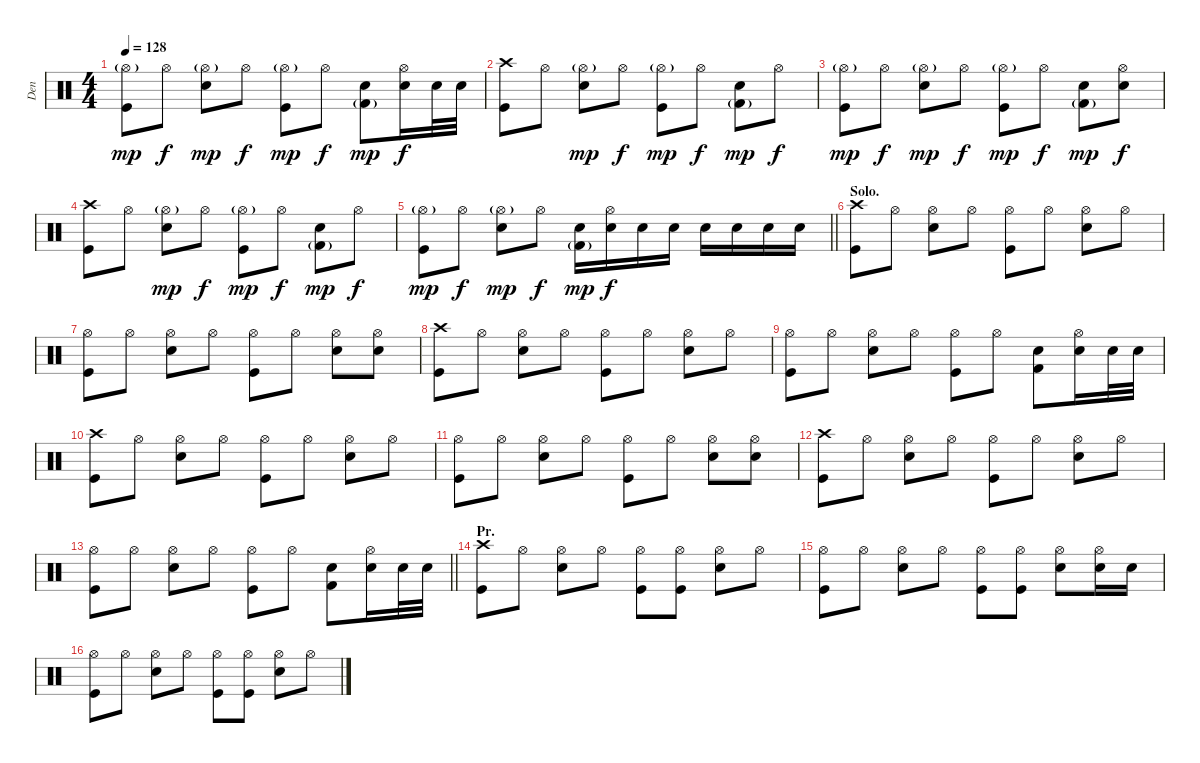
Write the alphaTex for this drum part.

\track ("Den" "Den") {instrument percussion}
\staff
\articulation defaults
\ts (4 4)
\tempo 128
\clef neutral
\ks c
("Hi-Hat (open)"{g} "Kick (hit)").8{dy mp} "Hi-Hat (open)".8{dy f} ("Hi-Hat (open)"{g} "Snare (hit) 2").8{dy mp} "Hi-Hat (open)".8{dy f} ("Hi-Hat (open)"{g} "Kick (hit)").8{dy mp} "Hi-Hat (open)".8{dy f} ("Kick (hit) 2"{g} "Snare (hit) 2").8{dy mp} ("Hi-Hat (open)" "Snare (hit) 2").16{dy f} "Snare (hit) 2".32 "Snare (hit) 2".32 |
("Crash high (hit)" "Kick (hit)").8 "Hi-Hat (open)".8 ("Hi-Hat (open)"{g} "Snare (hit) 2").8{dy mp} "Hi-Hat (open)".8{dy f} ("Hi-Hat (open)"{g} "Kick (hit)").8{dy mp} "Hi-Hat (open)".8{dy f} ("Kick (hit) 2"{g} "Snare (hit) 2").8{dy mp} "Hi-Hat (open)".8{dy f} |
("Hi-Hat (open)"{g} "Kick (hit)").8{dy mp} "Hi-Hat (open)".8{dy f} ("Hi-Hat (open)"{g} "Snare (hit) 2").8{dy mp} "Hi-Hat (open)".8{dy f} ("Hi-Hat (open)"{g} "Kick (hit)").8{dy mp} "Hi-Hat (open)".8{dy f} ("Kick (hit) 2"{g} "Snare (hit) 2").8{dy mp} ("Hi-Hat (open)" "Snare (hit) 2").8{dy f} |
("Crash high (hit)" "Kick (hit)").8 "Hi-Hat (open)".8 ("Hi-Hat (open)"{g} "Snare (hit) 2").8{dy mp} "Hi-Hat (open)".8{dy f} ("Hi-Hat (open)"{g} "Kick (hit)").8{dy mp} "Hi-Hat (open)".8{dy f} ("Kick (hit) 2"{g} "Snare (hit) 2").8{dy mp} "Hi-Hat (open)".8{dy f} |
\barLineRight lightlight
("Hi-Hat (open)"{g} "Kick (hit)").8{dy mp} "Hi-Hat (open)".8{dy f} ("Hi-Hat (open)"{g} "Snare (hit) 2").8{dy mp} "Hi-Hat (open)".8{dy f} ("Kick (hit) 2"{g} "Snare (hit) 2").16{dy mp} ("Hi-Hat (open)" "Snare (hit) 2").16{dy f} "Snare (hit) 2".16 "Snare (hit) 2".16 "Snare (hit) 2".16 "Snare (hit) 2".16 "Snare (hit) 2".16 "Snare (hit) 2".16 |
\section ("" "Solo.")
("Crash high (hit)" "Kick (hit)").8 "Hi-Hat (open)".8 ("Hi-Hat (open)" "Snare (hit) 2").8 "Hi-Hat (open)".8 ("Hi-Hat (open)" "Kick (hit)").8 "Hi-Hat (open)".8 ("Hi-Hat (open)" "Snare (hit) 2").8 "Hi-Hat (open)".8 |
("Hi-Hat (open)" "Kick (hit)").8 "Hi-Hat (open)".8 ("Hi-Hat (open)" "Snare (hit) 2").8 "Hi-Hat (open)".8 ("Hi-Hat (open)" "Kick (hit)").8 "Hi-Hat (open)".8 ("Hi-Hat (open)" "Snare (hit) 2").8 ("Hi-Hat (open)" "Snare (hit) 2").8 |
("Crash high (hit)" "Kick (hit)").8 "Hi-Hat (open)".8 ("Hi-Hat (open)" "Snare (hit) 2").8 "Hi-Hat (open)".8 ("Hi-Hat (open)" "Kick (hit)").8 "Hi-Hat (open)".8 ("Hi-Hat (open)" "Snare (hit) 2").8 "Hi-Hat (open)".8 |
("Hi-Hat (open)" "Kick (hit)").8 "Hi-Hat (open)".8 ("Hi-Hat (open)" "Snare (hit) 2").8 "Hi-Hat (open)".8 ("Hi-Hat (open)" "Kick (hit)").8 "Hi-Hat (open)".8 ("Kick (hit) 2" "Snare (hit) 2").8 ("Hi-Hat (open)" "Snare (hit) 2").16 "Snare (hit) 2".32 "Snare (hit) 2".32 |
("Crash high (hit)" "Kick (hit)").8 "Hi-Hat (open)".8 ("Hi-Hat (open)" "Snare (hit) 2").8 "Hi-Hat (open)".8 ("Hi-Hat (open)" "Kick (hit)").8 "Hi-Hat (open)".8 ("Hi-Hat (open)" "Snare (hit) 2").8 "Hi-Hat (open)".8 |
("Hi-Hat (open)" "Kick (hit)").8 "Hi-Hat (open)".8 ("Hi-Hat (open)" "Snare (hit) 2").8 "Hi-Hat (open)".8 ("Hi-Hat (open)" "Kick (hit)").8 "Hi-Hat (open)".8 ("Hi-Hat (open)" "Snare (hit) 2").8 ("Hi-Hat (open)" "Snare (hit) 2").8 |
("Crash high (hit)" "Kick (hit)").8 "Hi-Hat (open)".8 ("Hi-Hat (open)" "Snare (hit) 2").8 "Hi-Hat (open)".8 ("Hi-Hat (open)" "Kick (hit)").8 "Hi-Hat (open)".8 ("Hi-Hat (open)" "Snare (hit) 2").8 "Hi-Hat (open)".8 |
\barLineRight lightlight
("Hi-Hat (open)" "Kick (hit)").8 "Hi-Hat (open)".8 ("Hi-Hat (open)" "Snare (hit) 2").8 "Hi-Hat (open)".8 ("Hi-Hat (open)" "Kick (hit)").8 "Hi-Hat (open)".8 ("Kick (hit) 2" "Snare (hit) 2").8 ("Hi-Hat (open)" "Snare (hit) 2").16 "Snare (hit) 2".32 "Snare (hit) 2".32 |
\section ("" "Pr.")
("Crash high (hit)" "Kick (hit)").8 "Hi-Hat (open)".8 ("Hi-Hat (open)" "Snare (hit) 2").8 "Hi-Hat (open)".8 ("Hi-Hat (open)" "Kick (hit)").8 ("Hi-Hat (open)" "Kick (hit)").8 ("Hi-Hat (open)" "Snare (hit) 2").8 "Hi-Hat (open)".8 |
("Hi-Hat (open)" "Kick (hit)").8 "Hi-Hat (open)".8 ("Hi-Hat (open)" "Snare (hit) 2").8 "Hi-Hat (open)".8 ("Hi-Hat (open)" "Kick (hit)").8 ("Hi-Hat (open)" "Kick (hit)").8 ("Hi-Hat (open)" "Snare (hit) 2").8 ("Hi-Hat (open)" "Snare (hit) 2").16 "Snare (hit) 2".16 |
("Hi-Hat (open)" "Kick (hit)").8 "Hi-Hat (open)".8 ("Hi-Hat (open)" "Snare (hit) 2").8 "Hi-Hat (open)".8 ("Hi-Hat (open)" "Kick (hit)").8 ("Hi-Hat (open)" "Kick (hit)").8 ("Hi-Hat (open)" "Snare (hit) 2").8 "Hi-Hat (open)".8
